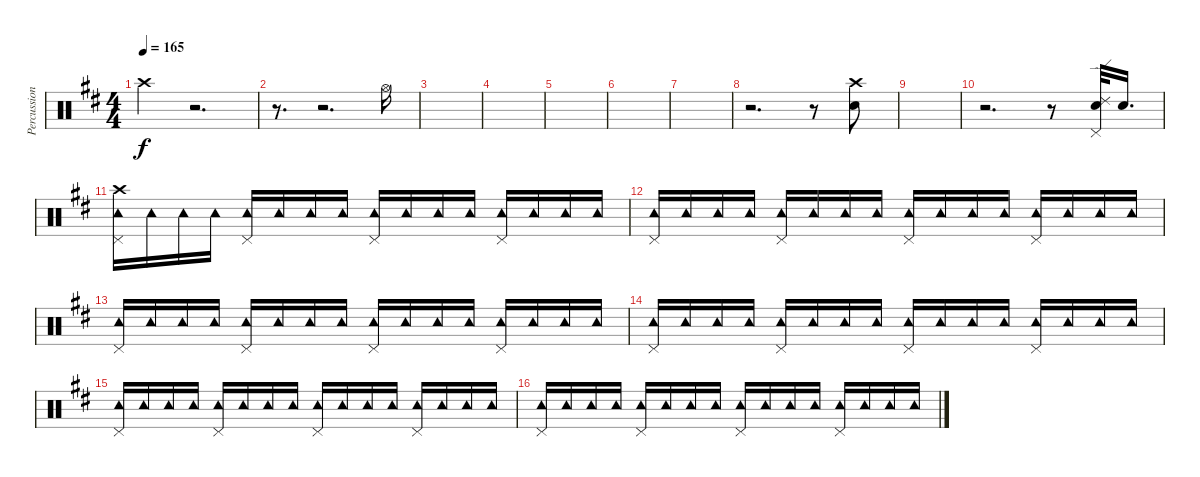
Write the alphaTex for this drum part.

\track ("Percussion" "Percussion") {instrument percussion}
\staff {score}
\articulation defaults
\ts (4 4)
\tempo 165
\clef neutral
\ks d "Crash high (hit)".4{dy f}
r.2{d} |
r.8{d} r.2{d} "Hi-Hat (open)".16 |
|
|
|
|
|
r.2{d} r.8 ("Crash high (hit)" "Snare (hit) 2").8 |
|
r.2{d} r.8 ("Snare (hit) 2" "Ride (edge) 2" "Pedal Hi-Hat (hit)").32 "Snare (hit) 2".16{d} |
("Tambourine (hit)" "Pedal Hi-Hat (hit)" "Crash high (hit)").16 "Tambourine (hit)".16 "Tambourine (hit)".16 "Tambourine (hit)".16 ("Tambourine (hit)" "Pedal Hi-Hat (hit)").16 "Tambourine (hit)".16 "Tambourine (hit)".16 "Tambourine (hit)".16 ("Tambourine (hit)" "Pedal Hi-Hat (hit)").16 "Tambourine (hit)".16 "Tambourine (hit)".16 "Tambourine (hit)".16 ("Tambourine (hit)" "Pedal Hi-Hat (hit)").16 "Tambourine (hit)".16 "Tambourine (hit)".16 "Tambourine (hit)".16 |
("Tambourine (hit)" "Pedal Hi-Hat (hit)").16 "Tambourine (hit)".16 "Tambourine (hit)".16 "Tambourine (hit)".16 ("Tambourine (hit)" "Pedal Hi-Hat (hit)").16 "Tambourine (hit)".16 "Tambourine (hit)".16 "Tambourine (hit)".16 ("Tambourine (hit)" "Pedal Hi-Hat (hit)").16 "Tambourine (hit)".16 "Tambourine (hit)".16 "Tambourine (hit)".16 ("Tambourine (hit)" "Pedal Hi-Hat (hit)").16 "Tambourine (hit)".16 "Tambourine (hit)".16 "Tambourine (hit)".16 |
("Tambourine (hit)" "Pedal Hi-Hat (hit)").16 "Tambourine (hit)".16 "Tambourine (hit)".16 "Tambourine (hit)".16 ("Tambourine (hit)" "Pedal Hi-Hat (hit)").16 "Tambourine (hit)".16 "Tambourine (hit)".16 "Tambourine (hit)".16 ("Tambourine (hit)" "Pedal Hi-Hat (hit)").16 "Tambourine (hit)".16 "Tambourine (hit)".16 "Tambourine (hit)".16 ("Tambourine (hit)" "Pedal Hi-Hat (hit)").16 "Tambourine (hit)".16 "Tambourine (hit)".16 "Tambourine (hit)".16 |
("Tambourine (hit)" "Pedal Hi-Hat (hit)").16 "Tambourine (hit)".16 "Tambourine (hit)".16 "Tambourine (hit)".16 ("Tambourine (hit)" "Pedal Hi-Hat (hit)").16 "Tambourine (hit)".16 "Tambourine (hit)".16 "Tambourine (hit)".16 ("Tambourine (hit)" "Pedal Hi-Hat (hit)").16 "Tambourine (hit)".16 "Tambourine (hit)".16 "Tambourine (hit)".16 ("Tambourine (hit)" "Pedal Hi-Hat (hit)").16 "Tambourine (hit)".16 "Tambourine (hit)".16 "Tambourine (hit)".16 |
("Tambourine (hit)" "Pedal Hi-Hat (hit)").16 "Tambourine (hit)".16 "Tambourine (hit)".16 "Tambourine (hit)".16 ("Tambourine (hit)" "Pedal Hi-Hat (hit)").16 "Tambourine (hit)".16 "Tambourine (hit)".16 "Tambourine (hit)".16 ("Tambourine (hit)" "Pedal Hi-Hat (hit)").16 "Tambourine (hit)".16 "Tambourine (hit)".16 "Tambourine (hit)".16 ("Tambourine (hit)" "Pedal Hi-Hat (hit)").16 "Tambourine (hit)".16 "Tambourine (hit)".16 "Tambourine (hit)".16 |
("Tambourine (hit)" "Pedal Hi-Hat (hit)").16 "Tambourine (hit)".16 "Tambourine (hit)".16 "Tambourine (hit)".16 ("Tambourine (hit)" "Pedal Hi-Hat (hit)").16 "Tambourine (hit)".16 "Tambourine (hit)".16 "Tambourine (hit)".16 ("Tambourine (hit)" "Pedal Hi-Hat (hit)").16 "Tambourine (hit)".16 "Tambourine (hit)".16 "Tambourine (hit)".16 ("Tambourine (hit)" "Pedal Hi-Hat (hit)").16 "Tambourine (hit)".16 "Tambourine (hit)".16 "Tambourine (hit)".16
